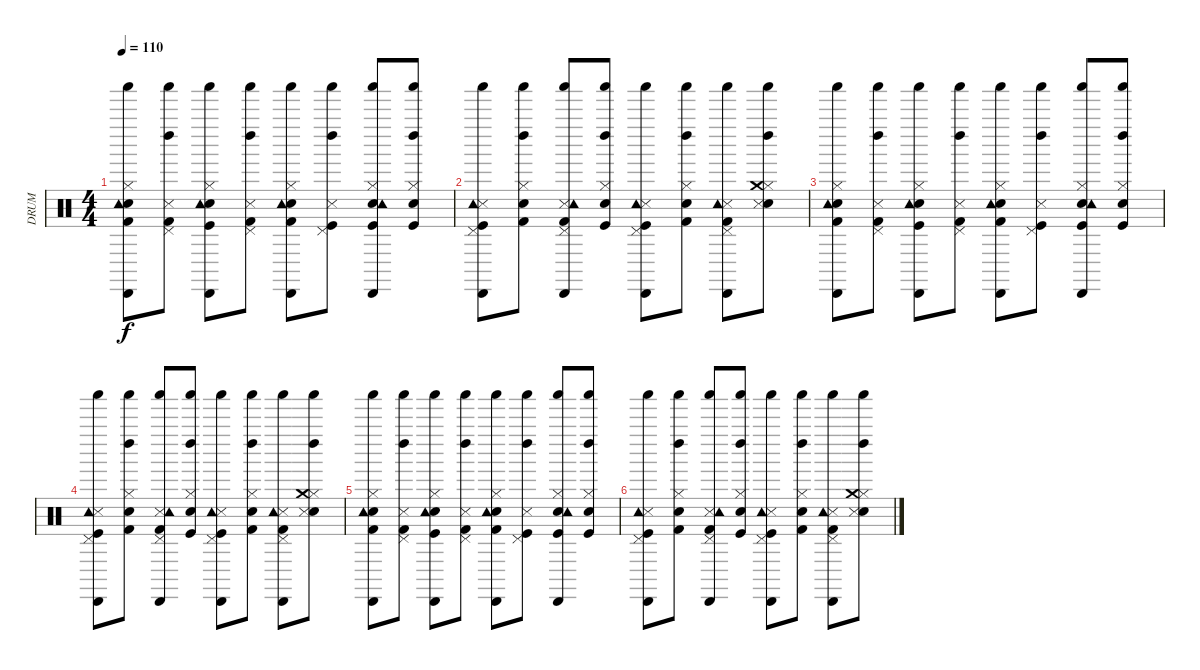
\track ("DRUM" "DRUM") {instrument percussion}
\staff {score}
\articulation defaults
\ts (4 4)
\tempo 110
\clef neutral
\ks c
("Kick (hit) 2" "Snare (hit) 2" "Hi-Hat (closed)" "Shaker (hit)" "Cabasa (hit)" "Tambourine (hit)").8{dy f} ("Kick (hit) 2" "Snare (side stick) 3" "Pedal Hi-Hat (hit)" "Shaker (hit)" "Left Maraca (hit)").8 ("Kick (hit)" "Snare (hit) 2" "Hi-Hat (closed)" "Shaker (hit)" "Cabasa (hit)" "Tambourine (hit)").8 ("Kick (hit) 2" "Snare (side stick) 3" "Pedal Hi-Hat (hit)" "Shaker (hit)" "Left Maraca (hit)").8 ("Kick (hit) 2" "Snare (hit) 2" "Hi-Hat (closed)" "Shaker (hit)" "Cabasa (hit)" "Tambourine (hit)").8 ("Kick (hit)" "Snare (side stick) 3" "Pedal Hi-Hat (hit)" "Shaker (hit)" "Left Maraca (hit)").8 ("Kick (hit)" "Snare (hit) 2" "Hi-Hat (closed)" "Shaker (hit)" "Cabasa (hit)" "Tambourine (hit)").8 ("Kick (hit)" "Snare (hit) 2" "Hi-Hat (closed)" "Shaker (hit)" "Left Maraca (hit)").8 |
("Kick (hit)" "Snare (side stick) 3" "Pedal Hi-Hat (hit)" "Shaker (hit)" "Cabasa (hit)" "Tambourine (hit)").8 ("Kick (hit) 2" "Snare (hit) 2" "Hi-Hat (closed)" "Shaker (hit)" "Left Maraca (hit)").8 ("Kick (hit) 2" "Snare (side stick) 3" "Pedal Hi-Hat (hit)" "Shaker (hit)" "Cabasa (hit)" "Tambourine (hit)").8 ("Kick (hit)" "Snare (hit) 2" "Hi-Hat (closed)" "Shaker (hit)" "Left Maraca (hit)").8 ("Kick (hit)" "Snare (side stick) 3" "Pedal Hi-Hat (hit)" "Shaker (hit)" "Cabasa (hit)" "Tambourine (hit)").8 ("Kick (hit) 2" "Snare (hit) 2" "Hi-Hat (closed)" "Shaker (hit)" "Left Maraca (hit)").8 ("Kick (hit) 2" "Snare (side stick) 3" "Pedal Hi-Hat (hit)" "Shaker (hit)" "Cabasa (hit)" "Tambourine (hit)").8 ("Electric Snare (hit)" "Snare (side stick) 3" "Hi-Hat (closed)" "Shaker (hit)" "Left Maraca (hit)" "Crash medium (hit)").8 |
("Kick (hit) 2" "Snare (hit) 2" "Hi-Hat (closed)" "Shaker (hit)" "Cabasa (hit)" "Tambourine (hit)").8 ("Kick (hit) 2" "Snare (side stick) 3" "Pedal Hi-Hat (hit)" "Shaker (hit)" "Left Maraca (hit)").8 ("Kick (hit)" "Snare (hit) 2" "Hi-Hat (closed)" "Shaker (hit)" "Cabasa (hit)" "Tambourine (hit)").8 ("Kick (hit) 2" "Snare (side stick) 3" "Pedal Hi-Hat (hit)" "Shaker (hit)" "Left Maraca (hit)").8 ("Kick (hit) 2" "Snare (hit) 2" "Hi-Hat (closed)" "Shaker (hit)" "Cabasa (hit)" "Tambourine (hit)").8 ("Kick (hit)" "Snare (side stick) 3" "Pedal Hi-Hat (hit)" "Shaker (hit)" "Left Maraca (hit)").8 ("Kick (hit)" "Snare (hit) 2" "Hi-Hat (closed)" "Shaker (hit)" "Cabasa (hit)" "Tambourine (hit)").8 ("Kick (hit)" "Snare (hit) 2" "Hi-Hat (closed)" "Shaker (hit)" "Left Maraca (hit)").8 |
("Kick (hit)" "Snare (side stick) 3" "Pedal Hi-Hat (hit)" "Shaker (hit)" "Cabasa (hit)" "Tambourine (hit)").8 ("Kick (hit) 2" "Snare (hit) 2" "Hi-Hat (closed)" "Shaker (hit)" "Left Maraca (hit)").8 ("Kick (hit) 2" "Snare (side stick) 3" "Pedal Hi-Hat (hit)" "Shaker (hit)" "Cabasa (hit)" "Tambourine (hit)").8 ("Kick (hit)" "Snare (hit) 2" "Hi-Hat (closed)" "Shaker (hit)" "Left Maraca (hit)").8 ("Kick (hit)" "Snare (side stick) 3" "Pedal Hi-Hat (hit)" "Shaker (hit)" "Cabasa (hit)" "Tambourine (hit)").8 ("Kick (hit) 2" "Snare (hit) 2" "Hi-Hat (closed)" "Shaker (hit)" "Left Maraca (hit)").8 ("Kick (hit) 2" "Snare (side stick) 3" "Pedal Hi-Hat (hit)" "Shaker (hit)" "Cabasa (hit)" "Tambourine (hit)").8 ("Electric Snare (hit)" "Snare (side stick) 3" "Hi-Hat (closed)" "Shaker (hit)" "Left Maraca (hit)" "Crash medium (hit)").8 |
("Kick (hit) 2" "Snare (hit) 2" "Hi-Hat (closed)" "Shaker (hit)" "Cabasa (hit)" "Tambourine (hit)").8 ("Kick (hit) 2" "Snare (side stick) 3" "Pedal Hi-Hat (hit)" "Shaker (hit)" "Left Maraca (hit)").8 ("Kick (hit)" "Snare (hit) 2" "Hi-Hat (closed)" "Shaker (hit)" "Cabasa (hit)" "Tambourine (hit)").8 ("Kick (hit) 2" "Snare (side stick) 3" "Pedal Hi-Hat (hit)" "Shaker (hit)" "Left Maraca (hit)").8 ("Kick (hit) 2" "Snare (hit) 2" "Hi-Hat (closed)" "Shaker (hit)" "Cabasa (hit)" "Tambourine (hit)").8 ("Kick (hit)" "Snare (side stick) 3" "Pedal Hi-Hat (hit)" "Shaker (hit)" "Left Maraca (hit)").8 ("Kick (hit)" "Snare (hit) 2" "Hi-Hat (closed)" "Shaker (hit)" "Cabasa (hit)" "Tambourine (hit)").8 ("Kick (hit)" "Snare (hit) 2" "Hi-Hat (closed)" "Shaker (hit)" "Left Maraca (hit)").8 |
("Kick (hit)" "Snare (side stick) 3" "Pedal Hi-Hat (hit)" "Shaker (hit)" "Cabasa (hit)" "Tambourine (hit)").8 ("Kick (hit) 2" "Snare (hit) 2" "Hi-Hat (closed)" "Shaker (hit)" "Left Maraca (hit)").8 ("Kick (hit) 2" "Snare (side stick) 3" "Pedal Hi-Hat (hit)" "Shaker (hit)" "Cabasa (hit)" "Tambourine (hit)").8 ("Kick (hit)" "Snare (hit) 2" "Hi-Hat (closed)" "Shaker (hit)" "Left Maraca (hit)").8 ("Kick (hit)" "Snare (side stick) 3" "Pedal Hi-Hat (hit)" "Shaker (hit)" "Cabasa (hit)" "Tambourine (hit)").8 ("Kick (hit) 2" "Snare (hit) 2" "Hi-Hat (closed)" "Shaker (hit)" "Left Maraca (hit)").8 ("Kick (hit) 2" "Snare (side stick) 3" "Pedal Hi-Hat (hit)" "Shaker (hit)" "Cabasa (hit)" "Tambourine (hit)").8 ("Electric Snare (hit)" "Snare (side stick) 3" "Hi-Hat (closed)" "Shaker (hit)" "Left Maraca (hit)" "Crash medium (hit)").8
